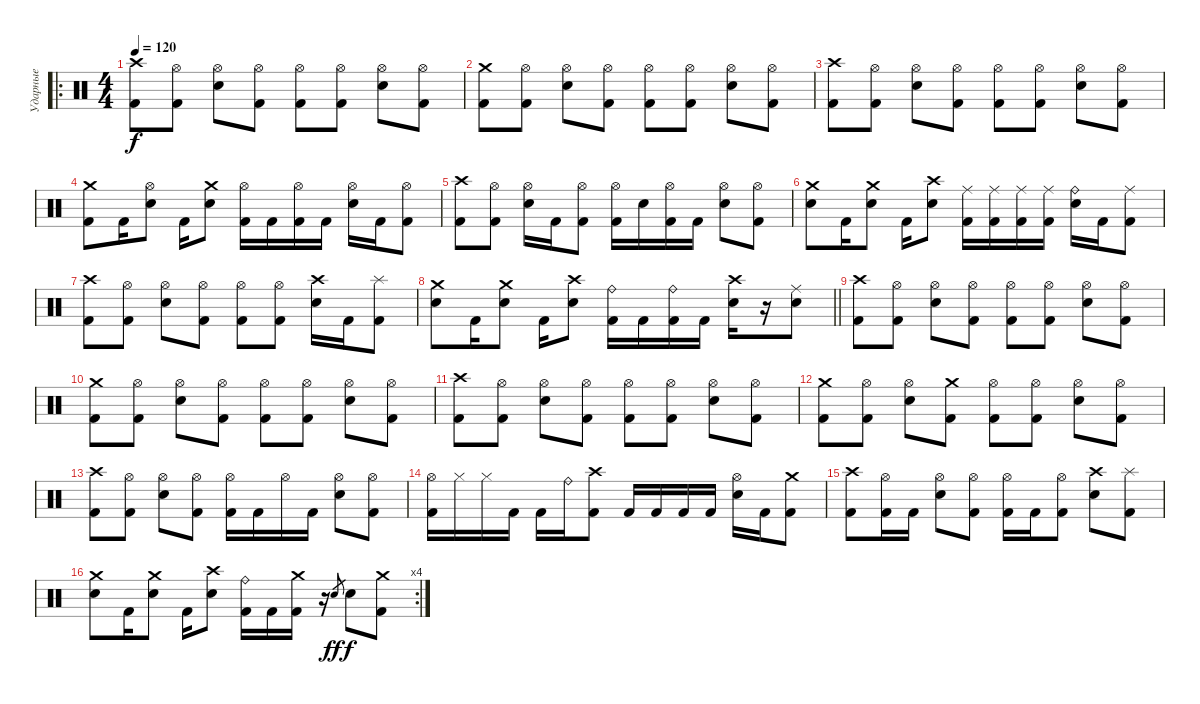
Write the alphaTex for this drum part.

\track ("Ударные" "Ударные") {instrument percussion}
\staff {score}
\articulation defaults
\ro
\ts (4 4)
\tempo 120
\clef neutral
\ks c
("Crash high (hit)" "Kick (hit) 2").8{dy f} ("Hi-Hat (open)" "Kick (hit) 2").8 ("Hi-Hat (open)" "Electric Snare (hit)").8 ("Hi-Hat (open)" "Kick (hit) 2").8 ("Hi-Hat (open)" "Kick (hit) 2").8 ("Hi-Hat (open)" "Kick (hit) 2").8 ("Hi-Hat (open)" "Electric Snare (hit)").8 ("Hi-Hat (open)" "Kick (hit) 2").8 |
("Crash medium (hit)" "Kick (hit) 2").8 ("Hi-Hat (open)" "Kick (hit) 2").8 ("Hi-Hat (open)" "Electric Snare (hit)").8 ("Hi-Hat (open)" "Kick (hit) 2").8 ("Hi-Hat (open)" "Kick (hit) 2").8 ("Hi-Hat (open)" "Kick (hit) 2").8 ("Hi-Hat (open)" "Electric Snare (hit)").8 ("Hi-Hat (open)" "Kick (hit) 2").8 |
("Crash high (hit)" "Kick (hit) 2").8 ("Hi-Hat (open)" "Kick (hit) 2").8 ("Hi-Hat (open)" "Electric Snare (hit)").8 ("Hi-Hat (open)" "Kick (hit) 2").8 ("Hi-Hat (open)" "Kick (hit) 2").8 ("Hi-Hat (open)" "Kick (hit) 2").8 ("Hi-Hat (open)" "Electric Snare (hit)").8 ("Hi-Hat (open)" "Kick (hit) 2").8 |
("Crash medium (hit)" "Kick (hit) 2").8 "Kick (hit) 2".16 ("Hi-Hat (open)" "Electric Snare (hit)").8 "Kick (hit) 2".16 ("Crash medium (hit)" "Electric Snare (hit)").8 ("Hi-Hat (open)" "Kick (hit) 2").16 "Kick (hit) 2".16 ("Hi-Hat (open)" "Kick (hit) 2").16 "Kick (hit) 2".16 ("Hi-Hat (open)" "Electric Snare (hit)").16 "Kick (hit) 2".16 ("Hi-Hat (open)" "Kick (hit) 2").8 |
("Crash high (hit)" "Kick (hit) 2").8 ("Hi-Hat (open)" "Kick (hit) 2").8 ("Hi-Hat (open)" "Electric Snare (hit)").16 "Kick (hit) 2".16 ("Hi-Hat (open)" "Kick (hit) 2").8 ("Hi-Hat (open)" "Kick (hit) 2").16 "Electric Snare (hit)".16 ("Hi-Hat (open)" "Kick (hit) 2").16 "Kick (hit) 2".16 ("Hi-Hat (open)" "Electric Snare (hit)").8 ("Hi-Hat (open)" "Kick (hit) 2").8 |
("Crash medium (hit)" "Electric Snare (hit)").8 "Kick (hit) 2".16 ("Crash medium (hit)" "Electric Snare (hit)").8 "Kick (hit) 2".16 ("Crash high (hit)" "Electric Snare (hit)").8 ("Ride (middle)" "Kick (hit) 2").16 ("Ride (middle)" "Kick (hit) 2").16 ("Ride (middle)" "Kick (hit) 2").16 ("Ride (middle)" "Kick (hit) 2").16 ("Ride (bell)" "Electric Snare (hit)").16 "Kick (hit) 2".16 ("Ride (middle)" "Kick (hit) 2").8 |
("Crash high (hit)" "Kick (hit) 2").8 ("Hi-Hat (open)" "Kick (hit) 2").8 ("Hi-Hat (open)" "Electric Snare (hit)").8 ("Hi-Hat (open)" "Kick (hit) 2").8 ("Hi-Hat (open)" "Kick (hit) 2").8 ("Hi-Hat (open)" "Kick (hit) 2").8 ("Crash high (hit)" "Electric Snare (hit)").16 "Kick (hit) 2".16 ("Splash (hit)" "Kick (hit) 2").8 |
\barLineRight lightlight
("Crash medium (hit)" "Electric Snare (hit)").8 "Kick (hit) 2".16 ("Crash medium (hit)" "Electric Snare (hit)").8 "Kick (hit) 2".16 ("Crash high (hit)" "Electric Snare (hit)").8 ("Ride (bell)" "Kick (hit) 2").16 "Kick (hit) 2".16 ("Ride (bell)" "Kick (hit) 2").16 "Kick (hit) 2".16 ("Crash high (hit)" "Electric Snare (hit)").16 r.16 ("Ride (middle)" "Electric Snare (hit)").8 |
("Crash high (hit)" "Kick (hit) 2").8 ("Hi-Hat (open)" "Kick (hit) 2").8 ("Hi-Hat (open)" "Electric Snare (hit)").8 ("Hi-Hat (open)" "Kick (hit) 2").8 ("Hi-Hat (open)" "Kick (hit) 2").8 ("Hi-Hat (open)" "Kick (hit) 2").8 ("Hi-Hat (open)" "Electric Snare (hit)").8 ("Hi-Hat (open)" "Kick (hit) 2").8 |
("Crash medium (hit)" "Kick (hit) 2").8 ("Hi-Hat (open)" "Kick (hit) 2").8 ("Hi-Hat (open)" "Electric Snare (hit)").8 ("Hi-Hat (open)" "Kick (hit) 2").8 ("Hi-Hat (open)" "Kick (hit) 2").8 ("Hi-Hat (open)" "Kick (hit) 2").8 ("Hi-Hat (open)" "Electric Snare (hit)").8 ("Hi-Hat (open)" "Kick (hit) 2").8 |
("Crash high (hit)" "Kick (hit) 2").8 ("Hi-Hat (open)" "Kick (hit) 2").8 ("Hi-Hat (open)" "Electric Snare (hit)").8 ("Hi-Hat (open)" "Kick (hit) 2").8 ("Hi-Hat (open)" "Kick (hit) 2").8 ("Hi-Hat (open)" "Kick (hit) 2").8 ("Hi-Hat (open)" "Electric Snare (hit)").8 ("Hi-Hat (open)" "Kick (hit) 2").8 |
("Crash medium (hit)" "Kick (hit) 2").8 ("Hi-Hat (open)" "Kick (hit) 2").8 ("Hi-Hat (open)" "Electric Snare (hit)").8 ("Crash medium (hit)" "Kick (hit) 2").8 ("Hi-Hat (open)" "Kick (hit) 2").8 ("Hi-Hat (open)" "Kick (hit) 2").8 ("Hi-Hat (open)" "Electric Snare (hit)").8 ("Hi-Hat (open)" "Kick (hit) 2").8 |
("Crash high (hit)" "Kick (hit) 2").8 ("Hi-Hat (open)" "Kick (hit) 2").8 ("Hi-Hat (open)" "Electric Snare (hit)").8 ("Hi-Hat (open)" "Kick (hit) 2").8 ("Hi-Hat (open)" "Kick (hit) 2").16 "Kick (hit) 2".16 "Hi-Hat (open)".16 "Kick (hit) 2".16 ("Hi-Hat (open)" "Electric Snare (hit)").8 ("Hi-Hat (open)" "Kick (hit) 2").8 |
("Hi-Hat (open)" "Kick (hit) 2").16 "Hi-Hat (closed)".16 "Hi-Hat (closed)".16 "Kick (hit) 2".16 "Kick (hit) 2".16 "Ride (bell)".16 ("Crash high (hit)" "Kick (hit) 2").8 "Kick (hit) 2".16 "Kick (hit) 2".16 "Kick (hit) 2".16 "Kick (hit) 2".16 ("Hi-Hat (open)" "Electric Snare (hit)").16 "Kick (hit) 2".16 ("Crash medium (hit)" "Kick (hit) 2").8 |
("Crash high (hit)" "Kick (hit) 2").8 ("Hi-Hat (open)" "Kick (hit) 2").16 "Kick (hit) 2".16 ("Hi-Hat (open)" "Electric Snare (hit)").8 ("Hi-Hat (open)" "Kick (hit) 2").8 ("Hi-Hat (open)" "Kick (hit) 2").16 "Kick (hit) 2".16 ("Hi-Hat (open)" "Kick (hit) 2").8 ("Crash high (hit)" "Electric Snare (hit)").8 ("Splash (hit)" "Kick (hit) 2").8 |
\rc 4
("Crash medium (hit)" "Electric Snare (hit)").8 "Kick (hit) 2".16 ("Crash medium (hit)" "Electric Snare (hit)").8 "Kick (hit) 2".16 ("Crash high (hit)" "Electric Snare (hit)").8 ("Ride (bell)" "Kick (hit) 2").16 "Kick (hit) 2".16 ("Crash medium (hit)" "Kick (hit) 2").16 r.16 "Electric Snare (hit)".8{gr dy ff} "Electric Snare (hit)".8{dy f} ("Crash medium (hit)" "Kick (hit) 2").8
